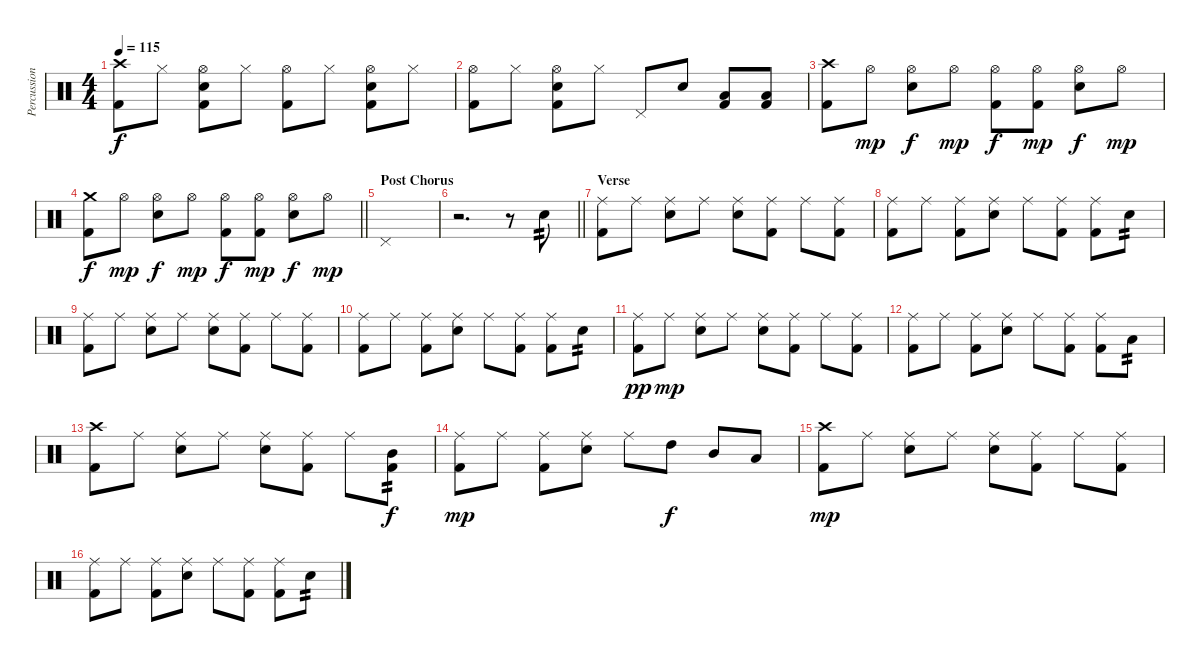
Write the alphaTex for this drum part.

\track ("Percussion" "Percussion") {instrument percussion}
\staff {score}
\articulation defaults
\ts (4 4)
\tempo 115
\clef neutral
\ks c
("Crash high (hit)" "Kick (hit) 2").8{dy f} "Hi-Hat (closed)".8 ("Hi-Hat (open)" "Electric Snare (hit)" "Kick (hit) 2").8 "Hi-Hat (closed)".8 ("Hi-Hat (open)" "Kick (hit) 2").8 "Hi-Hat (closed)".8 ("Hi-Hat (open)" "Electric Snare (hit)" "Kick (hit) 2").8 "Hi-Hat (closed)".8 |
("Hi-Hat (open)" "Kick (hit) 2").8 "Hi-Hat (closed)".8 ("Hi-Hat (open)" "Electric Snare (hit)" "Kick (hit) 2").8 "Hi-Hat (closed)".8 "Pedal Hi-Hat (hit)".8 "Electric Snare (hit)".8 ("Low Tom (hit)" "Kick (hit) 2").8 ("Low Floor Tom (hit)" "Kick (hit) 2").8 |
("Crash high (hit)" "Kick (hit) 2").8 "Hi-Hat (open)".8{dy mp} ("Hi-Hat (open)" "Electric Snare (hit)").8{dy f} "Hi-Hat (open)".8{dy mp} ("Hi-Hat (open)" "Kick (hit) 2").8{dy f} ("Hi-Hat (open)" "Kick (hit) 2").8{dy mp} ("Hi-Hat (open)" "Electric Snare (hit)").8{dy f} "Hi-Hat (open)".8{dy mp} |
\barLineRight lightlight
("Crash medium (hit)" "Kick (hit) 2").8{dy f} "Hi-Hat (open)".8{dy mp} ("Hi-Hat (open)" "Electric Snare (hit)").8{dy f} "Hi-Hat (open)".8{dy mp} ("Hi-Hat (open)" "Kick (hit) 2").8{dy f} ("Hi-Hat (open)" "Kick (hit) 2").8{dy mp} ("Hi-Hat (open)" "Electric Snare (hit)").8{dy f} "Hi-Hat (open)".8{dy mp} |
\section ("" "Post Chorus")
"Pedal Hi-Hat (hit)".1 |
\barLineRight lightlight
r.2{d} r.8 "Electric Snare (hit)".8{tp 2} |
\section ("" "Verse")
("Ride (middle)" "Kick (hit) 2").8 "Ride (middle)".8 ("Ride (middle)" "Electric Snare (hit)").8 "Ride (middle)".8 ("Ride (middle)" "Electric Snare (hit)").8 ("Ride (middle)" "Kick (hit) 2").8 "Ride (middle)".8 ("Ride (middle)" "Kick (hit) 2").8 |
("Ride (middle)" "Kick (hit) 2").8 "Ride (middle)".8 ("Ride (middle)" "Kick (hit) 2").8 ("Ride (middle)" "Electric Snare (hit)").8 "Ride (middle)".8 ("Ride (middle)" "Kick (hit) 2").8 ("Ride (middle)" "Kick (hit) 2").8 "Electric Snare (hit)".8{tp 2} |
("Ride (middle)" "Kick (hit) 2").8 "Ride (middle)".8 ("Ride (middle)" "Electric Snare (hit)").8 "Ride (middle)".8 ("Ride (middle)" "Electric Snare (hit)").8 ("Ride (middle)" "Kick (hit) 2").8 "Ride (middle)".8 ("Ride (middle)" "Kick (hit) 2").8 |
("Ride (middle)" "Kick (hit) 2").8 "Ride (middle)".8 ("Ride (middle)" "Kick (hit) 2").8 ("Ride (middle)" "Electric Snare (hit)").8 "Ride (middle)".8 ("Ride (middle)" "Kick (hit) 2").8 ("Ride (middle)" "Kick (hit) 2").8 "Electric Snare (hit)".8{tp 2} |
("Ride (middle)" "Kick (hit) 2").8{dy pp} "Ride (middle)".8{dy mp} ("Ride (middle)" "Electric Snare (hit)").8 "Ride (middle)".8 ("Ride (middle)" "Electric Snare (hit)").8 ("Ride (middle)" "Kick (hit) 2").8 "Ride (middle)".8 ("Ride (middle)" "Kick (hit) 2").8 |
("Ride (middle)" "Kick (hit) 2").8 "Ride (middle)".8 ("Ride (middle)" "Kick (hit) 2").8 ("Ride (middle)" "Electric Snare (hit)").8 "Ride (middle)".8 ("Ride (middle)" "Kick (hit) 2").8 ("Ride (middle)" "Kick (hit) 2").8 "Low Floor Tom (hit)".8{tp 2} |
("Crash high (hit)" "Kick (hit) 2").8 "Ride (middle)".8 ("Ride (middle)" "Electric Snare (hit)").8 "Ride (middle)".8 ("Ride (middle)" "Electric Snare (hit)").8 ("Ride (middle)" "Kick (hit) 2").8 "Ride (middle)".8 ("Mid Tom (hit)" "Kick (hit) 2").8{tp 2 dy f} |
("Ride (middle)" "Kick (hit) 2").8{dy mp} "Ride (middle)".8 ("Ride (middle)" "Kick (hit) 2").8 ("Ride (middle)" "Electric Snare (hit)").8 "Ride (middle)".8 "High Tom (hit)".8{dy f} "Mid Tom (hit)".8 "Low Tom (hit)".8 |
("Crash high (hit)" "Kick (hit) 2").8{dy mp} "Ride (middle)".8 ("Ride (middle)" "Electric Snare (hit)").8 "Ride (middle)".8 ("Ride (middle)" "Electric Snare (hit)").8 ("Ride (middle)" "Kick (hit) 2").8 "Ride (middle)".8 ("Ride (middle)" "Kick (hit) 2").8 |
("Ride (middle)" "Kick (hit) 2").8 "Ride (middle)".8 ("Ride (middle)" "Kick (hit) 2").8 ("Ride (middle)" "Electric Snare (hit)").8 "Ride (middle)".8 ("Ride (middle)" "Kick (hit) 2").8 ("Ride (middle)" "Kick (hit) 2").8 "Electric Snare (hit)".8{tp 2}
